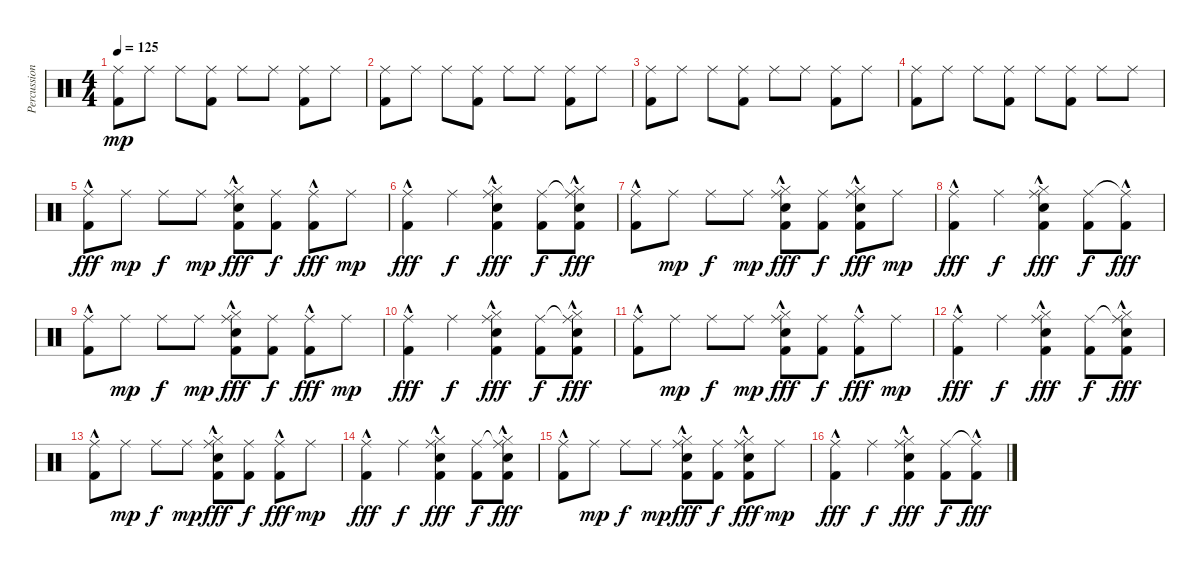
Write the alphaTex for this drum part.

\track ("Percussion" "Percussion") {instrument percussion}
\staff {score}
\articulation defaults
\ts (4 4)
\tempo 125
\clef neutral
\ks c
("Ride (middle)" "Kick (hit) 2").8{dy mp} "Ride (middle)".8 "Ride (middle)".8 ("Ride (middle)" "Kick (hit) 2").8 "Ride (middle)".8 "Ride (middle)".8 ("Ride (middle)" "Kick (hit) 2").8 "Ride (middle)".8 |
("Ride (middle)" "Kick (hit) 2").8 "Ride (middle)".8 "Ride (middle)".8 ("Ride (middle)" "Kick (hit) 2").8 "Ride (middle)".8 "Ride (middle)".8 ("Ride (middle)" "Kick (hit) 2").8 "Ride (middle)".8 |
("Ride (middle)" "Kick (hit) 2").8 "Ride (middle)".8 "Ride (middle)".8 ("Ride (middle)" "Kick (hit) 2").8 "Ride (middle)".8 "Ride (middle)".8 ("Ride (middle)" "Kick (hit) 2").8 "Ride (middle)".8 |
("Ride (middle)" "Kick (hit) 2").8 "Ride (middle)".8 "Ride (middle)".8 ("Ride (middle)" "Kick (hit) 2").8 "Ride (middle)".8 ("Ride (middle)" "Kick (hit) 2").8 "Ride (middle)".8 "Ride (middle)".8 |
("Ride (middle)" "Kick (hit) 2"{hac}).8{dy fff} "Ride (middle)".8{dy mp} "Ride (middle)".8{dy f} "Ride (middle)".8{dy mp} ("Ride (middle)" "Hi-Hat (closed)" "Electric Snare (hit)" "Kick (hit) 2"{hac}).8{dy fff} ("Ride (middle)" "Kick (hit) 2").8{dy f} ("Ride (middle)" "Kick (hit) 2"{hac}).8{dy fff} "Ride (middle)".8{dy mp} |
("Ride (middle)" "Kick (hit) 2"{hac}).4{dy fff} "Ride (middle)".4{dy f} ("Ride (middle)" "Hi-Hat (closed)" "Electric Snare (hit)" "Kick (hit) 2"{hac}).4{dy fff} ("Ride (middle)" "Kick (hit) 2").8{dy f} ("Ride (middle)"{t} "Hi-Hat (closed)" "Electric Snare (hit)" "Kick (hit) 2"{hac}).8{dy fff} |
("Ride (middle)" "Kick (hit) 2"{hac}).8 "Ride (middle)".8{dy mp} "Ride (middle)".8{dy f} "Ride (middle)".8{dy mp} ("Ride (middle)" "Hi-Hat (closed)" "Electric Snare (hit)" "Kick (hit) 2"{hac}).8{dy fff} ("Ride (middle)" "Kick (hit) 2").8{dy f} ("Ride (middle)" "Hi-Hat (closed)" "Electric Snare (hit)" "Kick (hit) 2"{hac}).8{dy fff} "Ride (middle)".8{dy mp} |
("Ride (middle)" "Kick (hit) 2"{hac}).4{dy fff} "Ride (middle)".4{dy f} ("Ride (middle)" "Hi-Hat (closed)" "Electric Snare (hit)" "Kick (hit) 2"{hac}).4{dy fff} ("Ride (middle)" "Kick (hit) 2").8{dy f} ("Ride (middle)"{t} "Kick (hit) 2"{hac}).8{dy fff} |
("Ride (middle)" "Kick (hit) 2"{hac}).8 "Ride (middle)".8{dy mp} "Ride (middle)".8{dy f} "Ride (middle)".8{dy mp} ("Ride (middle)" "Hi-Hat (closed)" "Electric Snare (hit)" "Kick (hit) 2"{hac}).8{dy fff} ("Ride (middle)" "Kick (hit) 2").8{dy f} ("Ride (middle)" "Kick (hit) 2"{hac}).8{dy fff} "Ride (middle)".8{dy mp} |
("Ride (middle)" "Kick (hit) 2"{hac}).4{dy fff} "Ride (middle)".4{dy f} ("Ride (middle)" "Hi-Hat (closed)" "Electric Snare (hit)" "Kick (hit) 2"{hac}).4{dy fff} ("Ride (middle)" "Kick (hit) 2").8{dy f} ("Ride (middle)"{t} "Hi-Hat (closed)" "Electric Snare (hit)" "Kick (hit) 2"{hac}).8{dy fff} |
("Ride (middle)" "Kick (hit) 2"{hac}).8 "Ride (middle)".8{dy mp} "Ride (middle)".8{dy f} "Ride (middle)".8{dy mp} ("Ride (middle)" "Hi-Hat (closed)" "Electric Snare (hit)" "Kick (hit) 2"{hac}).8{dy fff} ("Ride (middle)" "Kick (hit) 2").8{dy f} ("Ride (middle)" "Kick (hit) 2"{hac}).8{dy fff} "Ride (middle)".8{dy mp} |
("Ride (middle)" "Kick (hit) 2"{hac}).4{dy fff} "Ride (middle)".4{dy f} ("Ride (middle)" "Hi-Hat (closed)" "Electric Snare (hit)" "Kick (hit) 2"{hac}).4{dy fff} ("Ride (middle)" "Kick (hit) 2").8{dy f} ("Ride (middle)"{t} "Hi-Hat (closed)" "Electric Snare (hit)" "Kick (hit) 2"{hac}).8{dy fff} |
("Ride (middle)" "Kick (hit) 2"{hac}).8 "Ride (middle)".8{dy mp} "Ride (middle)".8{dy f} "Ride (middle)".8{dy mp} ("Ride (middle)" "Hi-Hat (closed)" "Electric Snare (hit)" "Kick (hit) 2"{hac}).8{dy fff} ("Ride (middle)" "Kick (hit) 2").8{dy f} ("Ride (middle)" "Kick (hit) 2"{hac}).8{dy fff} "Ride (middle)".8{dy mp} |
("Ride (middle)" "Kick (hit) 2"{hac}).4{dy fff} "Ride (middle)".4{dy f} ("Ride (middle)" "Hi-Hat (closed)" "Electric Snare (hit)" "Kick (hit) 2"{hac}).4{dy fff} ("Ride (middle)" "Kick (hit) 2").8{dy f} ("Ride (middle)"{t} "Hi-Hat (closed)" "Electric Snare (hit)" "Kick (hit) 2"{hac}).8{dy fff} |
("Ride (middle)" "Kick (hit) 2"{hac}).8 "Ride (middle)".8{dy mp} "Ride (middle)".8{dy f} "Ride (middle)".8{dy mp} ("Ride (middle)" "Hi-Hat (closed)" "Electric Snare (hit)" "Kick (hit) 2"{hac}).8{dy fff} ("Ride (middle)" "Kick (hit) 2").8{dy f} ("Ride (middle)" "Hi-Hat (closed)" "Electric Snare (hit)" "Kick (hit) 2"{hac}).8{dy fff} "Ride (middle)".8{dy mp} |
("Ride (middle)" "Kick (hit) 2"{hac}).4{dy fff} "Ride (middle)".4{dy f} ("Ride (middle)" "Hi-Hat (closed)" "Electric Snare (hit)" "Kick (hit) 2"{hac}).4{dy fff} ("Ride (middle)" "Kick (hit) 2").8{dy f} ("Ride (middle)"{t} "Kick (hit) 2"{hac}).8{dy fff}
